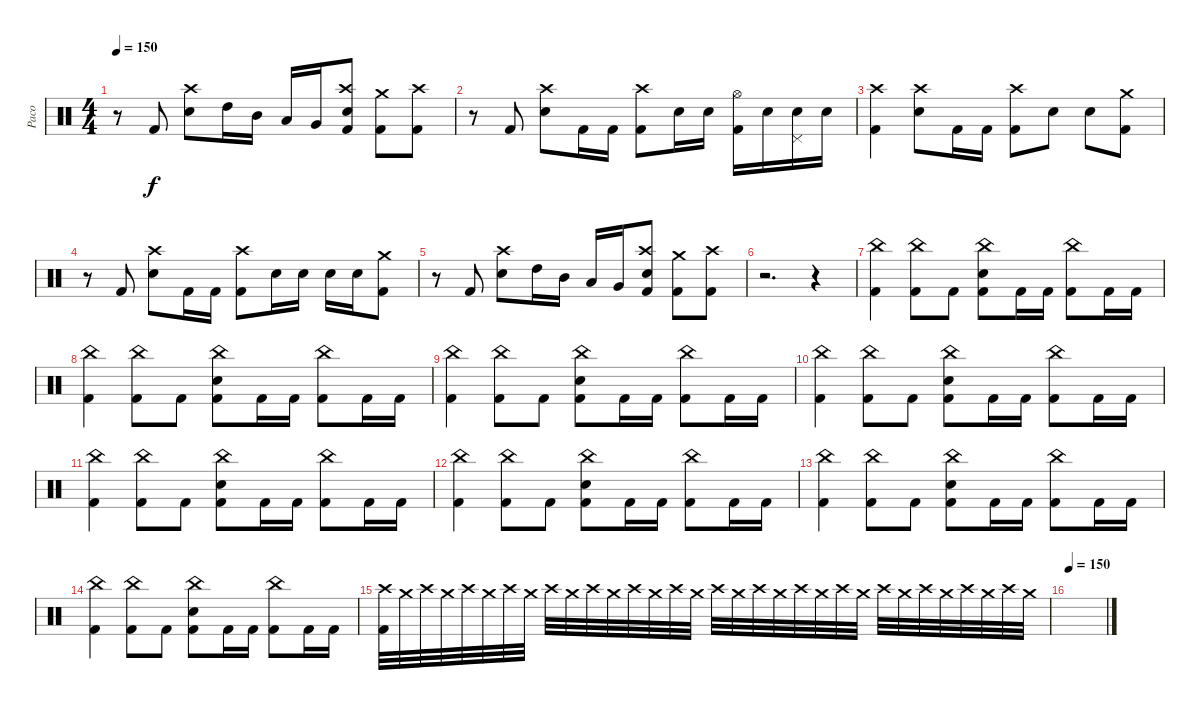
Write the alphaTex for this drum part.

\track ("Paco" "Paco") {instrument percussion}
\staff {score}
\articulation defaults
\ts (4 4)
\tempo 150
\clef neutral
\ks c
r.8{dy f} "Kick (hit) 2".8 ("Crash high (hit)" "Electric Snare (hit)").8 "High Tom (hit)".16 "Mid Tom (hit)".16 "Low Tom (hit)".16 "Very Low Tom (hit)".16 ("Crash high (hit)" "Electric Snare (hit)" "Kick (hit) 2").8 ("Crash medium (hit)" "Kick (hit) 2").8 ("Crash high (hit)" "Kick (hit) 2").8 |
r.8 "Kick (hit) 2".8 ("Crash high (hit)" "Electric Snare (hit)").8 "Kick (hit) 2".16 "Kick (hit) 2".16 ("Crash high (hit)" "Kick (hit) 2").8 "Electric Snare (hit)".16 "Electric Snare (hit)".16 ("Hi-Hat (open)" "Kick (hit) 2").16 "Electric Snare (hit)".16 ("Electric Snare (hit)" "Pedal Hi-Hat (hit)").16 "Electric Snare (hit)".16 |
("Crash high (hit)" "Kick (hit) 2").4 ("Crash high (hit)" "Electric Snare (hit)").8 "Kick (hit) 2".16 "Kick (hit) 2".16 ("Crash high (hit)" "Kick (hit) 2").8 "Electric Snare (hit)".8 "Electric Snare (hit)".8 ("Crash medium (hit)" "Kick (hit) 2").8 |
r.8 "Kick (hit) 2".8 ("Crash high (hit)" "Electric Snare (hit)").8 "Kick (hit) 2".16 "Kick (hit) 2".16 ("Crash high (hit)" "Kick (hit) 2").8 "Electric Snare (hit)".16 "Electric Snare (hit)".16 "Electric Snare (hit)".16 "Electric Snare (hit)".16 ("Crash medium (hit)" "Kick (hit) 2").8 |
r.8 "Kick (hit) 2".8 ("Crash high (hit)" "Electric Snare (hit)").8 "High Tom (hit)".16 "Mid Tom (hit)".16 "Low Tom (hit)".16 "Very Low Tom (hit)".16 ("Crash high (hit)" "Electric Snare (hit)" "Kick (hit) 2").8 ("Crash medium (hit)" "Kick (hit) 2").8 ("Crash high (hit)" "Kick (hit) 2").8 |
r.2{d} r.4 |
("China (hit)" "Kick (hit) 2").4 ("China (hit)" "Kick (hit) 2").8 "Kick (hit) 2".8 ("China (hit)" "Electric Snare (hit)" "Kick (hit) 2").8 "Kick (hit) 2".16 "Kick (hit) 2".16 ("China (hit)" "Kick (hit) 2").8 "Kick (hit) 2".16 "Kick (hit) 2".16 |
("China (hit)" "Kick (hit) 2").4 ("China (hit)" "Kick (hit) 2").8 "Kick (hit) 2".8 ("China (hit)" "Electric Snare (hit)" "Kick (hit) 2").8 "Kick (hit) 2".16 "Kick (hit) 2".16 ("China (hit)" "Kick (hit) 2").8 "Kick (hit) 2".16 "Kick (hit) 2".16 |
("China (hit)" "Kick (hit) 2").4 ("China (hit)" "Kick (hit) 2").8 "Kick (hit) 2".8 ("China (hit)" "Electric Snare (hit)" "Kick (hit) 2").8 "Kick (hit) 2".16 "Kick (hit) 2".16 ("China (hit)" "Kick (hit) 2").8 "Kick (hit) 2".16 "Kick (hit) 2".16 |
("China (hit)" "Kick (hit) 2").4 ("China (hit)" "Kick (hit) 2").8 "Kick (hit) 2".8 ("China (hit)" "Electric Snare (hit)" "Kick (hit) 2").8 "Kick (hit) 2".16 "Kick (hit) 2".16 ("China (hit)" "Kick (hit) 2").8 "Kick (hit) 2".16 "Kick (hit) 2".16 |
("China (hit)" "Kick (hit) 2").4 ("China (hit)" "Kick (hit) 2").8 "Kick (hit) 2".8 ("China (hit)" "Electric Snare (hit)" "Kick (hit) 2").8 "Kick (hit) 2".16 "Kick (hit) 2".16 ("China (hit)" "Kick (hit) 2").8 "Kick (hit) 2".16 "Kick (hit) 2".16 |
("China (hit)" "Kick (hit) 2").4 ("China (hit)" "Kick (hit) 2").8 "Kick (hit) 2".8 ("China (hit)" "Electric Snare (hit)" "Kick (hit) 2").8 "Kick (hit) 2".16 "Kick (hit) 2".16 ("China (hit)" "Kick (hit) 2").8 "Kick (hit) 2".16 "Kick (hit) 2".16 |
("China (hit)" "Kick (hit) 2").4 ("China (hit)" "Kick (hit) 2").8 "Kick (hit) 2".8 ("China (hit)" "Electric Snare (hit)" "Kick (hit) 2").8 "Kick (hit) 2".16 "Kick (hit) 2".16 ("China (hit)" "Kick (hit) 2").8 "Kick (hit) 2".16 "Kick (hit) 2".16 |
("China (hit)" "Kick (hit) 2").4 ("China (hit)" "Kick (hit) 2").8 "Kick (hit) 2".8 ("China (hit)" "Electric Snare (hit)" "Kick (hit) 2").8 "Kick (hit) 2".16 "Kick (hit) 2".16 ("China (hit)" "Kick (hit) 2").8 "Kick (hit) 2".16 "Kick (hit) 2".16 |
("Crash high (hit)" "Kick (hit) 2").32 "Crash medium (hit)".32 "Crash high (hit)".32 "Crash medium (hit)".32 "Crash high (hit)".32 "Crash medium (hit)".32 "Crash high (hit)".32 "Crash medium (hit)".32 "Crash high (hit)".32 "Crash medium (hit)".32 "Crash high (hit)".32 "Crash medium (hit)".32 "Crash high (hit)".32 "Crash medium (hit)".32 "Crash high (hit)".32 "Crash medium (hit)".32 "Crash high (hit)".32{volume 0} "Crash medium (hit)".32 "Crash high (hit)".32 "Crash medium (hit)".32 "Crash high (hit)".32 "Crash medium (hit)".32 "Crash high (hit)".32 "Crash medium (hit)".32 "Crash high (hit)".32 "Crash medium (hit)".32 "Crash high (hit)".32 "Crash medium (hit)".32 "Crash high (hit)".32 "Crash medium (hit)".32 "Crash high (hit)".32 "Crash medium (hit)".32 |
\tempo 150
